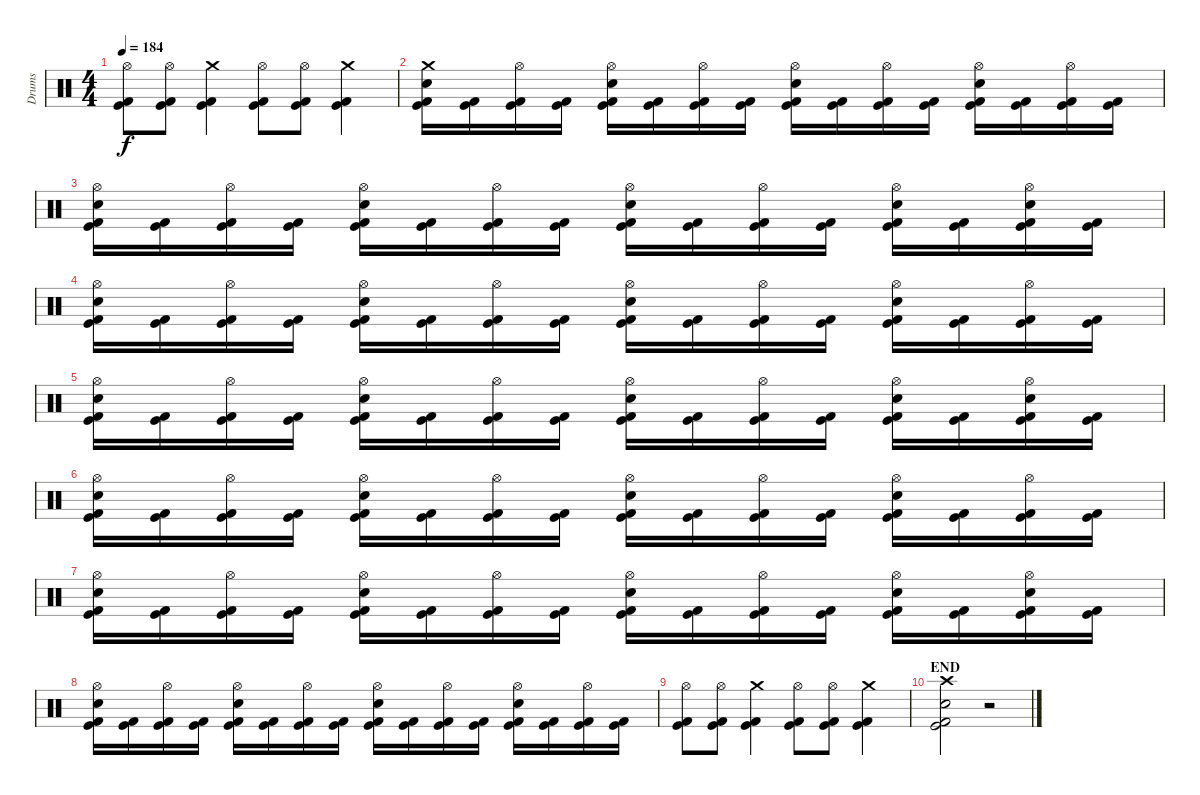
\track ("Drums" "Drums") {instrument percussion}
\staff {score}
\articulation defaults
\ts (4 4)
\tempo 184
\clef neutral
\ks c
("Hi-Hat (open)" "Kick (hit)" "Kick (hit) 2").8{dy f} ("Hi-Hat (open)" "Kick (hit)" "Kick (hit) 2").8 ("Crash medium (hit)" "Kick (hit)" "Kick (hit) 2").4 ("Hi-Hat (open)" "Kick (hit)" "Kick (hit) 2").8 ("Hi-Hat (open)" "Kick (hit)" "Kick (hit) 2").8 ("Crash medium (hit)" "Kick (hit)" "Kick (hit) 2").4 |
("Crash medium (hit)" "Electric Snare (hit)" "Kick (hit)" "Kick (hit) 2").16 ("Kick (hit)" "Kick (hit) 2").16 ("Hi-Hat (open)" "Kick (hit)" "Kick (hit) 2").16 ("Kick (hit)" "Kick (hit) 2").16 ("Hi-Hat (open)" "Electric Snare (hit)" "Kick (hit)" "Kick (hit) 2").16 ("Kick (hit)" "Kick (hit) 2").16 ("Hi-Hat (open)" "Kick (hit)" "Kick (hit) 2").16 ("Kick (hit)" "Kick (hit) 2").16 ("Hi-Hat (open)" "Electric Snare (hit)" "Kick (hit)" "Kick (hit) 2").16 ("Kick (hit)" "Kick (hit) 2").16 ("Hi-Hat (open)" "Kick (hit)" "Kick (hit) 2").16 ("Kick (hit)" "Kick (hit) 2").16 ("Hi-Hat (open)" "Electric Snare (hit)" "Kick (hit)" "Kick (hit) 2").16 ("Kick (hit)" "Kick (hit) 2").16 ("Hi-Hat (open)" "Kick (hit)" "Kick (hit) 2").16 ("Kick (hit)" "Kick (hit) 2").16 |
("Hi-Hat (open)" "Electric Snare (hit)" "Kick (hit)" "Kick (hit) 2").16 ("Kick (hit)" "Kick (hit) 2").16 ("Hi-Hat (open)" "Kick (hit)" "Kick (hit) 2").16 ("Kick (hit)" "Kick (hit) 2").16 ("Hi-Hat (open)" "Electric Snare (hit)" "Kick (hit)" "Kick (hit) 2").16 ("Kick (hit)" "Kick (hit) 2").16 ("Hi-Hat (open)" "Kick (hit)" "Kick (hit) 2").16 ("Kick (hit)" "Kick (hit) 2").16 ("Hi-Hat (open)" "Electric Snare (hit)" "Kick (hit)" "Kick (hit) 2").16 ("Kick (hit)" "Kick (hit) 2").16 ("Hi-Hat (open)" "Kick (hit)" "Kick (hit) 2").16 ("Kick (hit)" "Kick (hit) 2").16 ("Hi-Hat (open)" "Electric Snare (hit)" "Kick (hit)" "Kick (hit) 2").16 ("Kick (hit)" "Kick (hit) 2").16 ("Hi-Hat (open)" "Electric Snare (hit)" "Kick (hit)" "Kick (hit) 2").16 ("Kick (hit)" "Kick (hit) 2").16 |
("Hi-Hat (open)" "Electric Snare (hit)" "Kick (hit)" "Kick (hit) 2").16 ("Kick (hit)" "Kick (hit) 2").16 ("Hi-Hat (open)" "Kick (hit)" "Kick (hit) 2").16 ("Kick (hit)" "Kick (hit) 2").16 ("Hi-Hat (open)" "Electric Snare (hit)" "Kick (hit)" "Kick (hit) 2").16 ("Kick (hit)" "Kick (hit) 2").16 ("Hi-Hat (open)" "Kick (hit)" "Kick (hit) 2").16 ("Kick (hit)" "Kick (hit) 2").16 ("Hi-Hat (open)" "Electric Snare (hit)" "Kick (hit)" "Kick (hit) 2").16 ("Kick (hit)" "Kick (hit) 2").16 ("Hi-Hat (open)" "Kick (hit)" "Kick (hit) 2").16 ("Kick (hit)" "Kick (hit) 2").16 ("Hi-Hat (open)" "Electric Snare (hit)" "Kick (hit)" "Kick (hit) 2").16 ("Kick (hit)" "Kick (hit) 2").16 ("Hi-Hat (open)" "Kick (hit)" "Kick (hit) 2").16 ("Kick (hit)" "Kick (hit) 2").16 |
("Hi-Hat (open)" "Electric Snare (hit)" "Kick (hit)" "Kick (hit) 2").16 ("Kick (hit)" "Kick (hit) 2").16 ("Hi-Hat (open)" "Kick (hit)" "Kick (hit) 2").16 ("Kick (hit)" "Kick (hit) 2").16 ("Hi-Hat (open)" "Electric Snare (hit)" "Kick (hit)" "Kick (hit) 2").16 ("Kick (hit)" "Kick (hit) 2").16 ("Hi-Hat (open)" "Kick (hit)" "Kick (hit) 2").16 ("Kick (hit)" "Kick (hit) 2").16 ("Hi-Hat (open)" "Electric Snare (hit)" "Kick (hit)" "Kick (hit) 2").16 ("Kick (hit)" "Kick (hit) 2").16 ("Hi-Hat (open)" "Kick (hit)" "Kick (hit) 2").16 ("Kick (hit)" "Kick (hit) 2").16 ("Hi-Hat (open)" "Electric Snare (hit)" "Kick (hit)" "Kick (hit) 2").16 ("Kick (hit)" "Kick (hit) 2").16 ("Hi-Hat (open)" "Electric Snare (hit)" "Kick (hit)" "Kick (hit) 2").16 ("Kick (hit)" "Kick (hit) 2").16 |
("Hi-Hat (open)" "Electric Snare (hit)" "Kick (hit)" "Kick (hit) 2").16 ("Kick (hit)" "Kick (hit) 2").16 ("Hi-Hat (open)" "Kick (hit)" "Kick (hit) 2").16 ("Kick (hit)" "Kick (hit) 2").16 ("Hi-Hat (open)" "Electric Snare (hit)" "Kick (hit)" "Kick (hit) 2").16 ("Kick (hit)" "Kick (hit) 2").16 ("Hi-Hat (open)" "Kick (hit)" "Kick (hit) 2").16 ("Kick (hit)" "Kick (hit) 2").16 ("Hi-Hat (open)" "Electric Snare (hit)" "Kick (hit)" "Kick (hit) 2").16 ("Kick (hit)" "Kick (hit) 2").16 ("Hi-Hat (open)" "Kick (hit)" "Kick (hit) 2").16 ("Kick (hit)" "Kick (hit) 2").16 ("Hi-Hat (open)" "Electric Snare (hit)" "Kick (hit)" "Kick (hit) 2").16 ("Kick (hit)" "Kick (hit) 2").16 ("Hi-Hat (open)" "Kick (hit)" "Kick (hit) 2").16 ("Kick (hit)" "Kick (hit) 2").16 |
("Hi-Hat (open)" "Electric Snare (hit)" "Kick (hit)" "Kick (hit) 2").16 ("Kick (hit)" "Kick (hit) 2").16 ("Hi-Hat (open)" "Kick (hit)" "Kick (hit) 2").16 ("Kick (hit)" "Kick (hit) 2").16 ("Hi-Hat (open)" "Electric Snare (hit)" "Kick (hit)" "Kick (hit) 2").16 ("Kick (hit)" "Kick (hit) 2").16 ("Hi-Hat (open)" "Kick (hit)" "Kick (hit) 2").16 ("Kick (hit)" "Kick (hit) 2").16 ("Hi-Hat (open)" "Electric Snare (hit)" "Kick (hit)" "Kick (hit) 2").16 ("Kick (hit)" "Kick (hit) 2").16 ("Hi-Hat (open)" "Kick (hit)" "Kick (hit) 2").16 ("Kick (hit)" "Kick (hit) 2").16 ("Hi-Hat (open)" "Electric Snare (hit)" "Kick (hit)" "Kick (hit) 2").16 ("Kick (hit)" "Kick (hit) 2").16 ("Hi-Hat (open)" "Electric Snare (hit)" "Kick (hit)" "Kick (hit) 2").16 ("Kick (hit)" "Kick (hit) 2").16 |
("Hi-Hat (open)" "Electric Snare (hit)" "Kick (hit)" "Kick (hit) 2").16 ("Kick (hit)" "Kick (hit) 2").16 ("Hi-Hat (open)" "Kick (hit)" "Kick (hit) 2").16 ("Kick (hit)" "Kick (hit) 2").16 ("Hi-Hat (open)" "Electric Snare (hit)" "Kick (hit)" "Kick (hit) 2").16 ("Kick (hit)" "Kick (hit) 2").16 ("Hi-Hat (open)" "Kick (hit)" "Kick (hit) 2").16 ("Kick (hit)" "Kick (hit) 2").16 ("Hi-Hat (open)" "Electric Snare (hit)" "Kick (hit)" "Kick (hit) 2").16 ("Kick (hit)" "Kick (hit) 2").16 ("Hi-Hat (open)" "Kick (hit)" "Kick (hit) 2").16 ("Kick (hit)" "Kick (hit) 2").16 ("Hi-Hat (open)" "Electric Snare (hit)" "Kick (hit)" "Kick (hit) 2").16 ("Kick (hit)" "Kick (hit) 2").16 ("Hi-Hat (open)" "Kick (hit)" "Kick (hit) 2").16 ("Kick (hit)" "Kick (hit) 2").16 |
("Hi-Hat (open)" "Kick (hit)" "Kick (hit) 2").8 ("Hi-Hat (open)" "Kick (hit)" "Kick (hit) 2").8 ("Crash medium (hit)" "Kick (hit)" "Kick (hit) 2").4 ("Hi-Hat (open)" "Kick (hit)" "Kick (hit) 2").8 ("Hi-Hat (open)" "Kick (hit)" "Kick (hit) 2").8 ("Crash medium (hit)" "Kick (hit)" "Kick (hit) 2").4 |
\section ("" "END")
("Crash high (hit)" "Electric Snare (hit)" "Kick (hit)" "Kick (hit) 2").2 r.2
